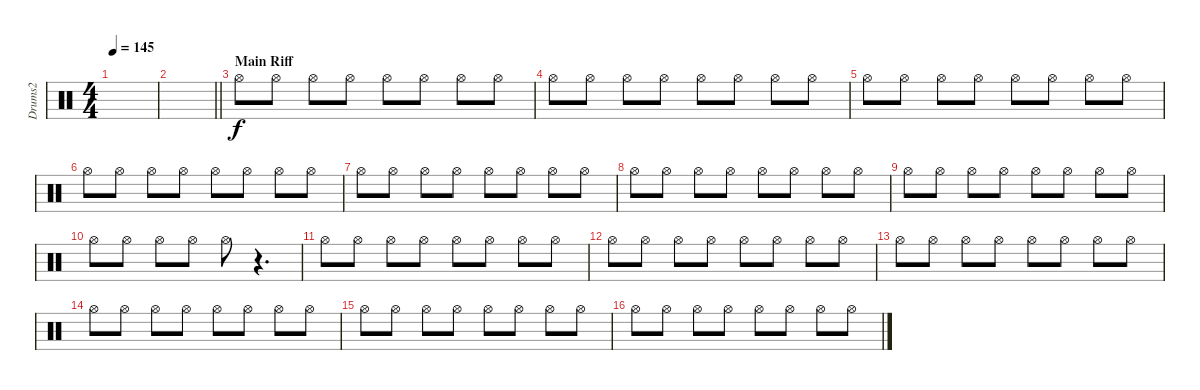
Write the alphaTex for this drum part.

\track ("Drums2" "Drums2") {instrument percussion}
\staff {score}
\articulation defaults
\ts (4 4)
\tempo 145
\clef neutral
\ks c
|
\barLineRight lightlight
|
\section ("" "Main Riff")
"Hi-Hat (open)".8 "Hi-Hat (open)".8 "Hi-Hat (open)".8 "Hi-Hat (open)".8 "Hi-Hat (open)".8 "Hi-Hat (open)".8 "Hi-Hat (open)".8 "Hi-Hat (open)".8 |
"Hi-Hat (open)".8 "Hi-Hat (open)".8 "Hi-Hat (open)".8 "Hi-Hat (open)".8 "Hi-Hat (open)".8 "Hi-Hat (open)".8 "Hi-Hat (open)".8 "Hi-Hat (open)".8 |
"Hi-Hat (open)".8 "Hi-Hat (open)".8 "Hi-Hat (open)".8 "Hi-Hat (open)".8 "Hi-Hat (open)".8 "Hi-Hat (open)".8 "Hi-Hat (open)".8 "Hi-Hat (open)".8 |
"Hi-Hat (open)".8 "Hi-Hat (open)".8 "Hi-Hat (open)".8 "Hi-Hat (open)".8 "Hi-Hat (open)".8 "Hi-Hat (open)".8 "Hi-Hat (open)".8 "Hi-Hat (open)".8 |
"Hi-Hat (open)".8 "Hi-Hat (open)".8 "Hi-Hat (open)".8 "Hi-Hat (open)".8 "Hi-Hat (open)".8 "Hi-Hat (open)".8 "Hi-Hat (open)".8 "Hi-Hat (open)".8 |
"Hi-Hat (open)".8 "Hi-Hat (open)".8 "Hi-Hat (open)".8 "Hi-Hat (open)".8 "Hi-Hat (open)".8 "Hi-Hat (open)".8 "Hi-Hat (open)".8 "Hi-Hat (open)".8 |
"Hi-Hat (open)".8 "Hi-Hat (open)".8 "Hi-Hat (open)".8 "Hi-Hat (open)".8 "Hi-Hat (open)".8 "Hi-Hat (open)".8 "Hi-Hat (open)".8 "Hi-Hat (open)".8 |
"Hi-Hat (open)".8 "Hi-Hat (open)".8 "Hi-Hat (open)".8 "Hi-Hat (open)".8 "Hi-Hat (open)".8 r.4{d} |
"Hi-Hat (open)".8 "Hi-Hat (open)".8 "Hi-Hat (open)".8 "Hi-Hat (open)".8 "Hi-Hat (open)".8 "Hi-Hat (open)".8 "Hi-Hat (open)".8 "Hi-Hat (open)".8 |
"Hi-Hat (open)".8 "Hi-Hat (open)".8 "Hi-Hat (open)".8 "Hi-Hat (open)".8 "Hi-Hat (open)".8 "Hi-Hat (open)".8 "Hi-Hat (open)".8 "Hi-Hat (open)".8 |
"Hi-Hat (open)".8 "Hi-Hat (open)".8 "Hi-Hat (open)".8 "Hi-Hat (open)".8 "Hi-Hat (open)".8 "Hi-Hat (open)".8 "Hi-Hat (open)".8 "Hi-Hat (open)".8 |
"Hi-Hat (open)".8 "Hi-Hat (open)".8 "Hi-Hat (open)".8 "Hi-Hat (open)".8 "Hi-Hat (open)".8 "Hi-Hat (open)".8 "Hi-Hat (open)".8 "Hi-Hat (open)".8 |
"Hi-Hat (open)".8 "Hi-Hat (open)".8 "Hi-Hat (open)".8 "Hi-Hat (open)".8 "Hi-Hat (open)".8 "Hi-Hat (open)".8 "Hi-Hat (open)".8 "Hi-Hat (open)".8 |
"Hi-Hat (open)".8 "Hi-Hat (open)".8 "Hi-Hat (open)".8 "Hi-Hat (open)".8 "Hi-Hat (open)".8 "Hi-Hat (open)".8 "Hi-Hat (open)".8 "Hi-Hat (open)".8
